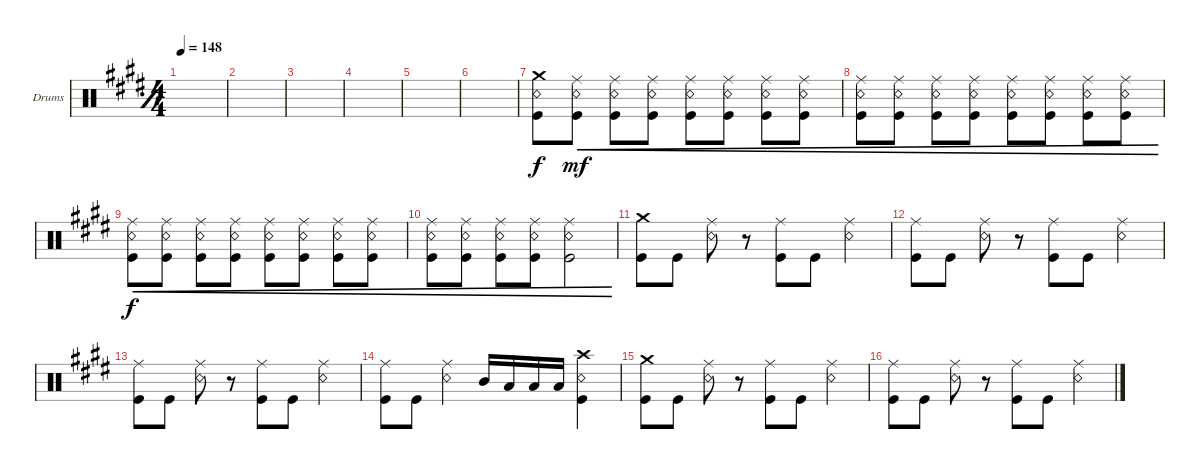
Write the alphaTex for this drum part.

\bracketExtendMode groupsimilarinstruments
\firstSystemTrackNameOrientation horizontal
\otherSystemsTrackNameOrientation horizontal
\track ("Drums" "Drums") {instrument percussion}
\staff {score}
\articulation defaults
\ts (4 4)
\tempo 148
\clef neutral
\simile simple
\ks e
|
|
|
|
|
|
("Snare (rim shot)" "Crash medium (hit)" "Kick (hit)").8{dy f} ("Snare (rim shot)" "Kick (hit)" "Ride (middle)").8{cre dy mf} ("Snare (rim shot)" "Kick (hit)" "Ride (middle)").8{cre} ("Snare (rim shot)" "Kick (hit)" "Ride (middle)").8{cre} ("Snare (rim shot)" "Kick (hit)" "Ride (middle)").8{cre} ("Snare (rim shot)" "Kick (hit)" "Ride (middle)").8{cre} ("Snare (rim shot)" "Kick (hit)" "Ride (middle)").8{cre} ("Snare (rim shot)" "Kick (hit)" "Ride (middle)").8{cre} |
("Snare (rim shot)" "Kick (hit)" "Ride (middle)").8{cre} ("Snare (rim shot)" "Kick (hit)" "Ride (middle)").8{cre} ("Snare (rim shot)" "Kick (hit)" "Ride (middle)").8{cre} ("Snare (rim shot)" "Kick (hit)" "Ride (middle)").8{cre} ("Snare (rim shot)" "Kick (hit)" "Ride (middle)").8{cre} ("Snare (rim shot)" "Kick (hit)" "Ride (middle)").8{cre} ("Snare (rim shot)" "Kick (hit)" "Ride (middle)").8{cre} ("Snare (rim shot)" "Kick (hit)" "Ride (middle)").8{cre} |
("Snare (rim shot)" "Kick (hit)" "Ride (middle)").8{cre dy f} ("Snare (rim shot)" "Kick (hit)" "Ride (middle)").8{cre} ("Snare (rim shot)" "Kick (hit)" "Ride (middle)").8{cre} ("Snare (rim shot)" "Kick (hit)" "Ride (middle)").8{cre} ("Snare (rim shot)" "Kick (hit)" "Ride (middle)").8{cre} ("Snare (rim shot)" "Kick (hit)" "Ride (middle)").8{cre} ("Snare (rim shot)" "Kick (hit)" "Ride (middle)").8{cre} ("Snare (rim shot)" "Kick (hit)" "Ride (middle)").8{cre} |
("Snare (rim shot)" "Kick (hit)" "Ride (middle)").8{cre} ("Snare (rim shot)" "Kick (hit)" "Ride (middle)").8{cre} ("Snare (rim shot)" "Kick (hit)" "Ride (middle)").8{cre} ("Snare (rim shot)" "Kick (hit)" "Ride (middle)").8{cre} ("Snare (rim shot)" "Kick (hit)" "Ride (middle)").2{cre} |
("Kick (hit)" "Crash medium (hit)").8 "Kick (hit)".8 ("Snare (rim shot)" "Ride (middle)").8 r.8 ("Kick (hit)" "Ride (middle)").8 "Kick (hit)".8 ("Snare (rim shot)" "Ride (middle)").4 |
("Kick (hit)" "Ride (middle)").8 "Kick (hit)".8 ("Snare (rim shot)" "Ride (middle)").8 r.8 ("Kick (hit)" "Ride (middle)").8 "Kick (hit)".8 ("Snare (rim shot)" "Ride (middle)").4 |
("Kick (hit)" "Ride (middle)").8 "Kick (hit)".8 ("Snare (rim shot)" "Ride (middle)").8 r.8 ("Kick (hit)" "Ride (middle)").8 "Kick (hit)".8 ("Snare (rim shot)" "Ride (middle)").4 |
("Kick (hit)" "Ride (middle)").8 "Kick (hit)".8 ("Snare (rim shot)" "Ride (middle)").4 "Mid Tom (hit)".16 "Low Tom (hit)".16 "Low Tom (hit)".16 "Low Tom (hit)".16 ("Snare (rim shot)" "Kick (hit)" "Crash high (hit)").4 |
("Kick (hit)" "Crash medium (hit)").8 "Kick (hit)".8 ("Snare (rim shot)" "Ride (middle)").8 r.8 ("Kick (hit)" "Ride (middle)").8 "Kick (hit)".8 ("Snare (rim shot)" "Ride (middle)").4 |
("Kick (hit)" "Ride (middle)").8 "Kick (hit)".8 ("Snare (rim shot)" "Ride (middle)").8 r.8 ("Kick (hit)" "Ride (middle)").8 "Kick (hit)".8 ("Snare (rim shot)" "Ride (middle)").4
